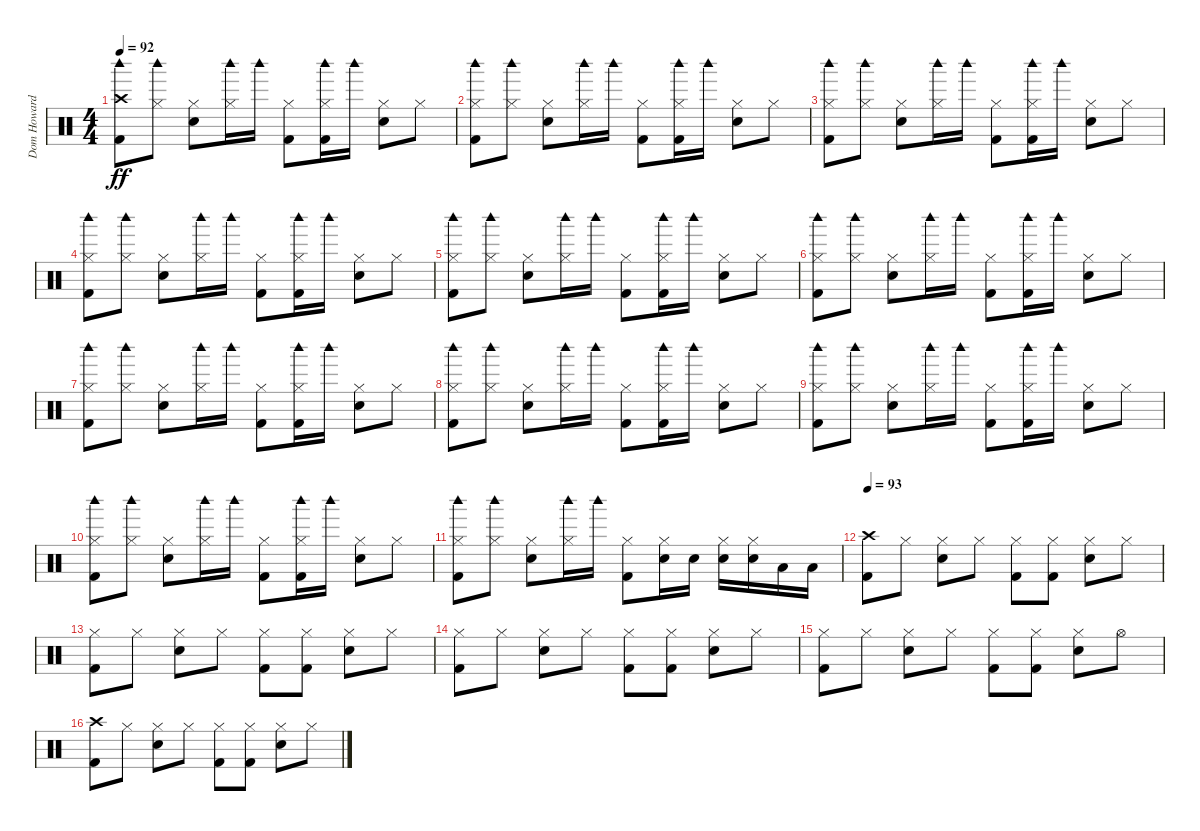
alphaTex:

\track ("Dom Howard" "Dom Howard") {instrument percussion}
\staff {score}
\articulation defaults
\ts (4 4)
\tempo 92
\clef neutral
\ks c
("Crash high (hit)" "Woodblock high (hit)" "Kick (hit) 2").8{dy ff} ("Hi-Hat (closed)" "Woodblock high (hit)").8 ("Hi-Hat (closed)" "Electric Snare (hit)").8 ("Hi-Hat (closed)" "Woodblock high (hit)").16 "Woodblock high (hit)".16 ("Hi-Hat (closed)" "Kick (hit) 2").8 ("Hi-Hat (closed)" "Woodblock high (hit)" "Kick (hit) 2").16 "Woodblock high (hit)".16 ("Hi-Hat (closed)" "Electric Snare (hit)").8 "Hi-Hat (closed)".8 |
("Hi-Hat (closed)" "Woodblock high (hit)" "Kick (hit) 2").8 ("Hi-Hat (closed)" "Woodblock high (hit)").8 ("Hi-Hat (closed)" "Electric Snare (hit)").8 ("Hi-Hat (closed)" "Woodblock high (hit)").16 "Woodblock high (hit)".16 ("Hi-Hat (closed)" "Kick (hit) 2").8 ("Hi-Hat (closed)" "Woodblock high (hit)" "Kick (hit) 2").16 "Woodblock high (hit)".16 ("Hi-Hat (closed)" "Electric Snare (hit)").8 "Hi-Hat (closed)".8 |
("Hi-Hat (closed)" "Woodblock high (hit)" "Kick (hit) 2").8 ("Hi-Hat (closed)" "Woodblock high (hit)").8 ("Hi-Hat (closed)" "Electric Snare (hit)").8 ("Hi-Hat (closed)" "Woodblock high (hit)").16 "Woodblock high (hit)".16 ("Hi-Hat (closed)" "Kick (hit) 2").8 ("Hi-Hat (closed)" "Woodblock high (hit)" "Kick (hit) 2").16 "Woodblock high (hit)".16 ("Hi-Hat (closed)" "Electric Snare (hit)").8 "Hi-Hat (closed)".8 |
("Hi-Hat (closed)" "Woodblock high (hit)" "Kick (hit) 2").8 ("Hi-Hat (closed)" "Woodblock high (hit)").8 ("Hi-Hat (closed)" "Electric Snare (hit)").8 ("Hi-Hat (closed)" "Woodblock high (hit)").16 "Woodblock high (hit)".16 ("Hi-Hat (closed)" "Kick (hit) 2").8 ("Hi-Hat (closed)" "Woodblock high (hit)" "Kick (hit) 2").16 "Woodblock high (hit)".16 ("Hi-Hat (closed)" "Electric Snare (hit)").8 "Hi-Hat (closed)".8 |
("Hi-Hat (closed)" "Woodblock high (hit)" "Kick (hit) 2").8 ("Hi-Hat (closed)" "Woodblock high (hit)").8 ("Hi-Hat (closed)" "Electric Snare (hit)").8 ("Hi-Hat (closed)" "Woodblock high (hit)").16 "Woodblock high (hit)".16 ("Hi-Hat (closed)" "Kick (hit) 2").8 ("Hi-Hat (closed)" "Woodblock high (hit)" "Kick (hit) 2").16 "Woodblock high (hit)".16 ("Hi-Hat (closed)" "Electric Snare (hit)").8 "Hi-Hat (closed)".8 |
("Hi-Hat (closed)" "Woodblock high (hit)" "Kick (hit) 2").8 ("Hi-Hat (closed)" "Woodblock high (hit)").8 ("Hi-Hat (closed)" "Electric Snare (hit)").8 ("Hi-Hat (closed)" "Woodblock high (hit)").16 "Woodblock high (hit)".16 ("Hi-Hat (closed)" "Kick (hit) 2").8 ("Hi-Hat (closed)" "Woodblock high (hit)" "Kick (hit) 2").16 "Woodblock high (hit)".16 ("Hi-Hat (closed)" "Electric Snare (hit)").8 "Hi-Hat (closed)".8 |
("Hi-Hat (closed)" "Woodblock high (hit)" "Kick (hit) 2").8 ("Hi-Hat (closed)" "Woodblock high (hit)").8 ("Hi-Hat (closed)" "Electric Snare (hit)").8 ("Hi-Hat (closed)" "Woodblock high (hit)").16 "Woodblock high (hit)".16 ("Hi-Hat (closed)" "Kick (hit) 2").8 ("Hi-Hat (closed)" "Woodblock high (hit)" "Kick (hit) 2").16 "Woodblock high (hit)".16 ("Hi-Hat (closed)" "Electric Snare (hit)").8 "Hi-Hat (closed)".8 |
("Hi-Hat (closed)" "Woodblock high (hit)" "Kick (hit) 2").8 ("Hi-Hat (closed)" "Woodblock high (hit)").8 ("Hi-Hat (closed)" "Electric Snare (hit)").8 ("Hi-Hat (closed)" "Woodblock high (hit)").16 "Woodblock high (hit)".16 ("Hi-Hat (closed)" "Kick (hit) 2").8 ("Hi-Hat (closed)" "Woodblock high (hit)" "Kick (hit) 2").16 "Woodblock high (hit)".16 ("Hi-Hat (closed)" "Electric Snare (hit)").8 "Hi-Hat (closed)".8 |
("Hi-Hat (closed)" "Woodblock high (hit)" "Kick (hit) 2").8 ("Hi-Hat (closed)" "Woodblock high (hit)").8 ("Hi-Hat (closed)" "Electric Snare (hit)").8 ("Hi-Hat (closed)" "Woodblock high (hit)").16 "Woodblock high (hit)".16 ("Hi-Hat (closed)" "Kick (hit) 2").8 ("Hi-Hat (closed)" "Woodblock high (hit)" "Kick (hit) 2").16 "Woodblock high (hit)".16 ("Hi-Hat (closed)" "Electric Snare (hit)").8 "Hi-Hat (closed)".8 |
("Hi-Hat (closed)" "Woodblock high (hit)" "Kick (hit) 2").8 ("Hi-Hat (closed)" "Woodblock high (hit)").8 ("Hi-Hat (closed)" "Electric Snare (hit)").8 ("Hi-Hat (closed)" "Woodblock high (hit)").16 "Woodblock high (hit)".16 ("Hi-Hat (closed)" "Kick (hit) 2").8 ("Hi-Hat (closed)" "Woodblock high (hit)" "Kick (hit) 2").16 "Woodblock high (hit)".16 ("Hi-Hat (closed)" "Electric Snare (hit)").8 "Hi-Hat (closed)".8 |
("Hi-Hat (closed)" "Woodblock high (hit)" "Kick (hit) 2").8 ("Hi-Hat (closed)" "Woodblock high (hit)").8 ("Hi-Hat (closed)" "Electric Snare (hit)").8 ("Hi-Hat (closed)" "Woodblock high (hit)").16 "Woodblock high (hit)".16 ("Hi-Hat (closed)" "Kick (hit) 2").8 ("Hi-Hat (closed)" "Electric Snare (hit)").16 "Electric Snare (hit)".16 ("Hi-Hat (closed)" "Electric Snare (hit)").16 ("Hi-Hat (closed)" "Electric Snare (hit)").16 "Low Floor Tom (hit)".16 "Low Floor Tom (hit)".16 |
\tempo 93
("Crash high (hit)" "Kick (hit) 2").8 "Hi-Hat (closed)".8 ("Hi-Hat (closed)" "Electric Snare (hit)").8 "Hi-Hat (closed)".8 ("Hi-Hat (closed)" "Kick (hit) 2").8 ("Hi-Hat (closed)" "Kick (hit) 2").8 ("Hi-Hat (closed)" "Electric Snare (hit)").8 "Hi-Hat (closed)".8 |
("Hi-Hat (closed)" "Kick (hit) 2").8 "Hi-Hat (closed)".8 ("Hi-Hat (closed)" "Electric Snare (hit)").8 "Hi-Hat (closed)".8 ("Hi-Hat (closed)" "Kick (hit) 2").8 ("Hi-Hat (closed)" "Kick (hit) 2").8 ("Hi-Hat (closed)" "Electric Snare (hit)").8 "Hi-Hat (closed)".8 |
("Hi-Hat (closed)" "Kick (hit) 2").8 "Hi-Hat (closed)".8 ("Hi-Hat (closed)" "Electric Snare (hit)").8 "Hi-Hat (closed)".8 ("Hi-Hat (closed)" "Kick (hit) 2").8 ("Hi-Hat (closed)" "Kick (hit) 2").8 ("Hi-Hat (closed)" "Electric Snare (hit)").8 "Hi-Hat (closed)".8 |
("Hi-Hat (closed)" "Kick (hit) 2").8 "Hi-Hat (closed)".8 ("Hi-Hat (closed)" "Electric Snare (hit)").8 "Hi-Hat (closed)".8 ("Hi-Hat (closed)" "Kick (hit) 2").8 ("Hi-Hat (closed)" "Kick (hit) 2").8 ("Hi-Hat (closed)" "Electric Snare (hit)").8 "Hi-Hat (open)".8 |
("Crash high (hit)" "Kick (hit) 2").8 "Hi-Hat (closed)".8 ("Hi-Hat (closed)" "Electric Snare (hit)").8 "Hi-Hat (closed)".8 ("Hi-Hat (closed)" "Kick (hit) 2").8 ("Hi-Hat (closed)" "Kick (hit) 2").8 ("Hi-Hat (closed)" "Electric Snare (hit)").8 "Hi-Hat (closed)".8
